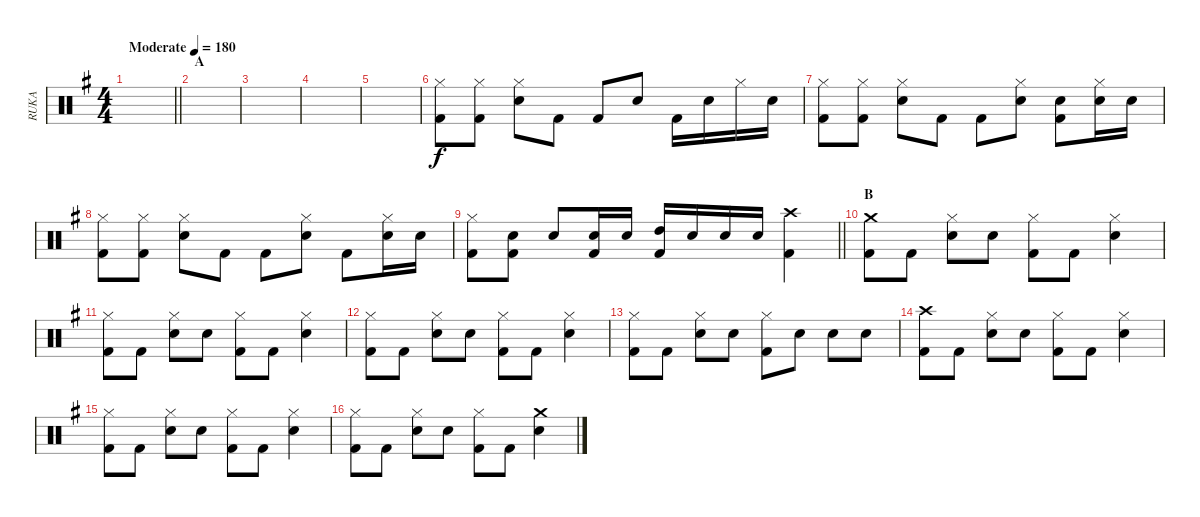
\track ("RUKA" "RUKA") {instrument percussion}
\staff {score}
\articulation defaults
\ts (4 4)
\tempo (180 "Moderate")
\clef neutral
\barLineRight lightlight
\ks g
|
\section ("" "A")
|
|
|
|
("Hi-Hat (closed)" "Kick (hit) 2").8 ("Hi-Hat (closed)" "Kick (hit) 2").8 ("Hi-Hat (closed)" "Snare (hit) 2").8 "Kick (hit) 2".8 "Kick (hit) 2".8 "Snare (hit) 2".8 "Kick (hit) 2".16 "Snare (hit) 2".16 "Hi-Hat (closed)".16 "Snare (hit) 2".16 |
("Hi-Hat (closed)" "Kick (hit) 2").8 ("Hi-Hat (closed)" "Kick (hit) 2").8 ("Hi-Hat (closed)" "Snare (hit) 2").8 "Kick (hit) 2".8 "Kick (hit) 2".8 ("Hi-Hat (closed)" "Snare (hit) 2").8 ("Snare (hit) 2" "Kick (hit) 2").8 ("Hi-Hat (closed)" "Snare (hit) 2").16 "Snare (hit) 2".16 |
("Hi-Hat (closed)" "Kick (hit) 2").8 ("Hi-Hat (closed)" "Kick (hit) 2").8 ("Hi-Hat (closed)" "Snare (hit) 2").8 "Kick (hit) 2".8 "Kick (hit) 2".8 ("Hi-Hat (closed)" "Snare (hit) 2").8 "Kick (hit) 2".8 ("Hi-Hat (closed)" "Snare (hit) 2").16 "Snare (hit) 2".16 |
\barLineRight lightlight
("Hi-Hat (closed)" "Kick (hit) 2").8 ("Snare (hit) 2" "Kick (hit) 2").8 "Snare (hit) 2".8 ("Snare (hit) 2" "Kick (hit) 2").16 "Snare (hit) 2".16 ("High Tom (hit)" "Kick (hit) 2").16 "Snare (hit) 2".16 "Snare (hit) 2".16 "Snare (hit) 2".16 ("Crash high (hit)" "Kick (hit) 2").4 |
\section ("" "B")
("Crash medium (hit)" "Kick (hit) 2").8 "Kick (hit) 2".8 ("Hi-Hat (closed)" "Snare (hit) 2").8 "Snare (hit) 2".8 ("Hi-Hat (closed)" "Kick (hit) 2").8 "Kick (hit) 2".8 ("Hi-Hat (closed)" "Snare (hit) 2").4 |
("Hi-Hat (closed)" "Kick (hit) 2").8 "Kick (hit) 2".8 ("Hi-Hat (closed)" "Snare (hit) 2").8 "Snare (hit) 2".8 ("Hi-Hat (closed)" "Kick (hit) 2").8 "Kick (hit) 2".8 ("Hi-Hat (closed)" "Snare (hit) 2").4 |
("Hi-Hat (closed)" "Kick (hit) 2").8 "Kick (hit) 2".8 ("Hi-Hat (closed)" "Snare (hit) 2").8 "Snare (hit) 2".8 ("Hi-Hat (closed)" "Kick (hit) 2").8 "Kick (hit) 2".8 ("Hi-Hat (closed)" "Snare (hit) 2").4 |
("Hi-Hat (closed)" "Kick (hit) 2").8 "Kick (hit) 2".8 ("Hi-Hat (closed)" "Snare (hit) 2").8 "Snare (hit) 2".8 ("Hi-Hat (closed)" "Kick (hit) 2").8 "Snare (hit) 2".8 "Snare (hit) 2".8 "Snare (hit) 2".8 |
("Crash high (hit)" "Kick (hit) 2").8 "Kick (hit) 2".8 ("Hi-Hat (closed)" "Snare (hit) 2").8 "Snare (hit) 2".8 ("Hi-Hat (closed)" "Kick (hit) 2").8 "Kick (hit) 2".8 ("Hi-Hat (closed)" "Snare (hit) 2").4 |
("Hi-Hat (closed)" "Kick (hit) 2").8 "Kick (hit) 2".8 ("Hi-Hat (closed)" "Snare (hit) 2").8 "Snare (hit) 2".8 ("Hi-Hat (closed)" "Kick (hit) 2").8 "Kick (hit) 2".8 ("Hi-Hat (closed)" "Snare (hit) 2").4 |
("Hi-Hat (closed)" "Kick (hit) 2").8 "Kick (hit) 2".8 ("Hi-Hat (closed)" "Snare (hit) 2").8 "Snare (hit) 2".8 ("Hi-Hat (closed)" "Kick (hit) 2").8 "Kick (hit) 2".8 ("Crash medium (hit)" "Snare (hit) 2").4
